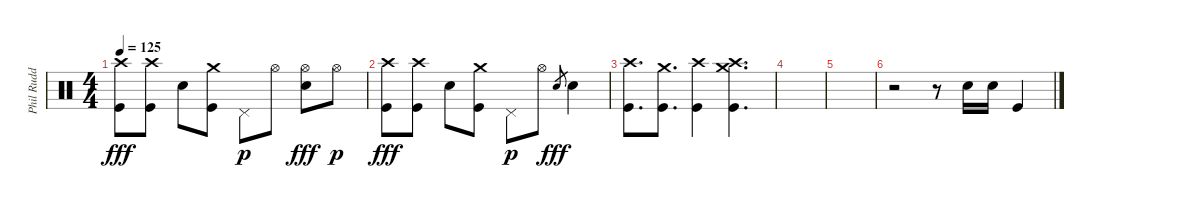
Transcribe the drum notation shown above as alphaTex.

\track ("Phil Rudd" "Phil Rudd") {instrument percussion}
\staff {score}
\articulation defaults
\ts (4 4)
\tempo 125
\clef neutral
\ks c
("Crash high (hit)" "Kick (hit)").8{dy fff} ("Crash high (hit)" "Kick (hit)").8 "Snare (hit) 2".8 ("Crash medium (hit)" "Kick (hit)").8 "Pedal Hi-Hat (hit)".8{dy p} "Hi-Hat (open)".8 ("Hi-Hat (open)" "Snare (hit) 2").8{dy fff} "Hi-Hat (open)".8{dy p} |
("Crash high (hit)" "Kick (hit)").8{dy fff} ("Crash high (hit)" "Kick (hit)").8 "Snare (hit) 2".8 ("Crash medium (hit)" "Kick (hit)").8 "Pedal Hi-Hat (hit)".8{dy p} "Hi-Hat (open)".8 "Snare (hit) 2".8{gr dy fff} "Snare (hit) 2".4 |
("Crash high (hit)" "Kick (hit)").8{d} ("Crash medium (hit)" "Kick (hit)").8{d} ("Crash high (hit)" "Kick (hit)").4 ("Crash high (hit)" "Crash medium (hit)" "Kick (hit)").4{d} |
|
|
r.2 r.8 "Snare (hit) 2".16 "Snare (hit) 2".16 "Kick (hit)".4
